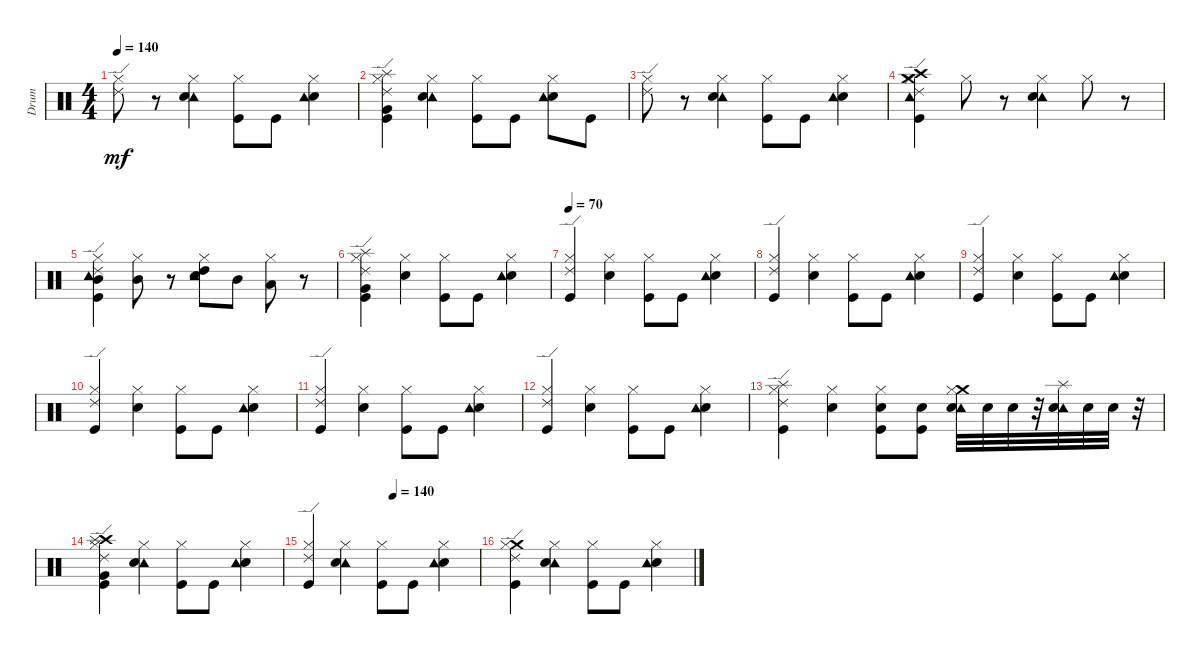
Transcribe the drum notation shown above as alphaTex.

\track ("Drum" "Drum") {instrument percussion}
\staff {score}
\articulation defaults
\ts (4 4)
\tempo 140
\clef neutral
\ks c
("Ride (edge) 2" "Hi-Hat (closed)").8{dy mf} r.8 ("Tambourine (hit)" "Hi-Hat (closed)" "Electric Snare (hit)").4 ("Hi-Hat (closed)" "Kick (hit)").8 "Kick (hit)".8 ("Electric Snare (hit)" "Tambourine (hit)" "Hi-Hat (closed)").4 |
("Splash (hit)" "Very Low Tom (hit)" "Ride (edge) 2" "Hi-Hat (closed)" "Kick (hit)").4 ("Tambourine (hit)" "Hi-Hat (closed)" "Electric Snare (hit)").4 ("Hi-Hat (closed)" "Kick (hit)").8 "Kick (hit)".8 ("Electric Snare (hit)" "Tambourine (hit)" "Hi-Hat (closed)").8 "Kick (hit)".8 |
("Ride (edge) 2" "Hi-Hat (closed)").8 r.8 ("Tambourine (hit)" "Hi-Hat (closed)" "Electric Snare (hit)").4 ("Hi-Hat (closed)" "Kick (hit)").8 "Kick (hit)".8 ("Electric Snare (hit)" "Tambourine (hit)" "Hi-Hat (closed)").4 |
("Crash high (hit)" "Crash medium (hit)" "Tambourine (hit)" "Ride (edge) 2" "Hi-Hat (closed)" "Kick (hit)").4 "Hi-Hat (closed)".8 r.8 ("Tambourine (hit)" "Electric Snare (hit)" "Hi-Hat (closed)").4 "Hi-Hat (closed)".8 r.8 |
("Tambourine (hit)" "Mid Tom (hit)" "Ride (edge) 2" "Hi-Hat (closed)" "Kick (hit)").4 ("Hi-Hat (closed)" "Mid Tom (hit)").8 r.8 ("Tambourine (hit)" "High Tom (hit)" "Electric Snare (hit)" "Hi-Hat (closed)").8 "Mid Tom (hit)".8 ("Hi-Hat (closed)" "Low Tom (hit)").8 r.8 |
("Splash (hit)" "Very Low Tom (hit)" "Ride (edge) 2" "Hi-Hat (closed)" "Kick (hit)").4 ("Hi-Hat (closed)" "Electric Snare (hit)").4 ("Hi-Hat (closed)" "Kick (hit)").8 "Kick (hit)".8 ("Electric Snare (hit)" "Tambourine (hit)" "Hi-Hat (closed)").4 |
\tempo 70
("Ride (edge) 2" "Hi-Hat (closed)" "Kick (hit)").4 ("Hi-Hat (closed)" "Electric Snare (hit)").4 ("Hi-Hat (closed)" "Kick (hit)").8 "Kick (hit)".8 ("Electric Snare (hit)" "Tambourine (hit)" "Hi-Hat (closed)").4 |
("Ride (edge) 2" "Hi-Hat (closed)" "Kick (hit)").4 ("Hi-Hat (closed)" "Electric Snare (hit)").4 ("Hi-Hat (closed)" "Kick (hit)").8 "Kick (hit)".8 ("Electric Snare (hit)" "Tambourine (hit)" "Hi-Hat (closed)").4 |
("Ride (edge) 2" "Hi-Hat (closed)" "Kick (hit)").4 ("Hi-Hat (closed)" "Electric Snare (hit)").4 ("Hi-Hat (closed)" "Kick (hit)").8 "Kick (hit)".8 ("Electric Snare (hit)" "Tambourine (hit)" "Hi-Hat (closed)").4 |
("Ride (edge) 2" "Hi-Hat (closed)" "Kick (hit)").4 ("Hi-Hat (closed)" "Electric Snare (hit)").4 ("Hi-Hat (closed)" "Kick (hit)").8 "Kick (hit)".8 ("Electric Snare (hit)" "Tambourine (hit)" "Hi-Hat (closed)").4 |
("Ride (edge) 2" "Hi-Hat (closed)" "Kick (hit)").4 ("Hi-Hat (closed)" "Electric Snare (hit)").4 ("Hi-Hat (closed)" "Kick (hit)").8 "Kick (hit)".8 ("Electric Snare (hit)" "Tambourine (hit)" "Hi-Hat (closed)").4 |
("Ride (edge) 2" "Hi-Hat (closed)" "Kick (hit)").4 ("Hi-Hat (closed)" "Electric Snare (hit)").4 ("Hi-Hat (closed)" "Kick (hit)").8 "Kick (hit)".8 ("Electric Snare (hit)" "Tambourine (hit)" "Hi-Hat (closed)").4 |
("Splash (hit)" "Ride (edge) 2" "Hi-Hat (closed)" "Kick (hit)").4 ("Hi-Hat (closed)" "Electric Snare (hit)").4 ("Snare (hit) 2" "Hi-Hat (closed)" "Kick (hit)").8 ("Snare (hit) 2" "Kick (hit)").8 ("Crash medium (hit)" "Tambourine (hit)" "Snare (hit) 2" "Hi-Hat (closed)").32 "Snare (hit) 2".32 "Snare (hit) 2".32 r.32 ("Tambourine (hit)" "Splash (hit)" "Snare (hit) 2").32 "Snare (hit) 2".32 "Snare (hit) 2".32 r.32 |
("Crash high (hit)" "Splash (hit)" "Very Low Tom (hit)" "Ride (edge) 2" "Hi-Hat (closed)" "Kick (hit)").4 ("Tambourine (hit)" "Hi-Hat (closed)" "Electric Snare (hit)").4 ("Hi-Hat (closed)" "Kick (hit)").8 "Kick (hit)".8 ("Electric Snare (hit)" "Tambourine (hit)" "Hi-Hat (closed)").4 |
\tempo (140 0.5)
("Ride (edge) 2" "Hi-Hat (closed)" "Kick (hit)").4 ("Tambourine (hit)" "Hi-Hat (closed)" "Electric Snare (hit)").4 ("Hi-Hat (closed)" "Kick (hit)").8 "Kick (hit)".8 ("Electric Snare (hit)" "Tambourine (hit)" "Hi-Hat (closed)").4 |
("Crash medium (hit)" "Ride (edge) 2" "Hi-Hat (closed)" "Kick (hit)").4 ("Tambourine (hit)" "Hi-Hat (closed)" "Electric Snare (hit)").4 ("Hi-Hat (closed)" "Kick (hit)").8 "Kick (hit)".8 ("Electric Snare (hit)" "Tambourine (hit)" "Hi-Hat (closed)").4
